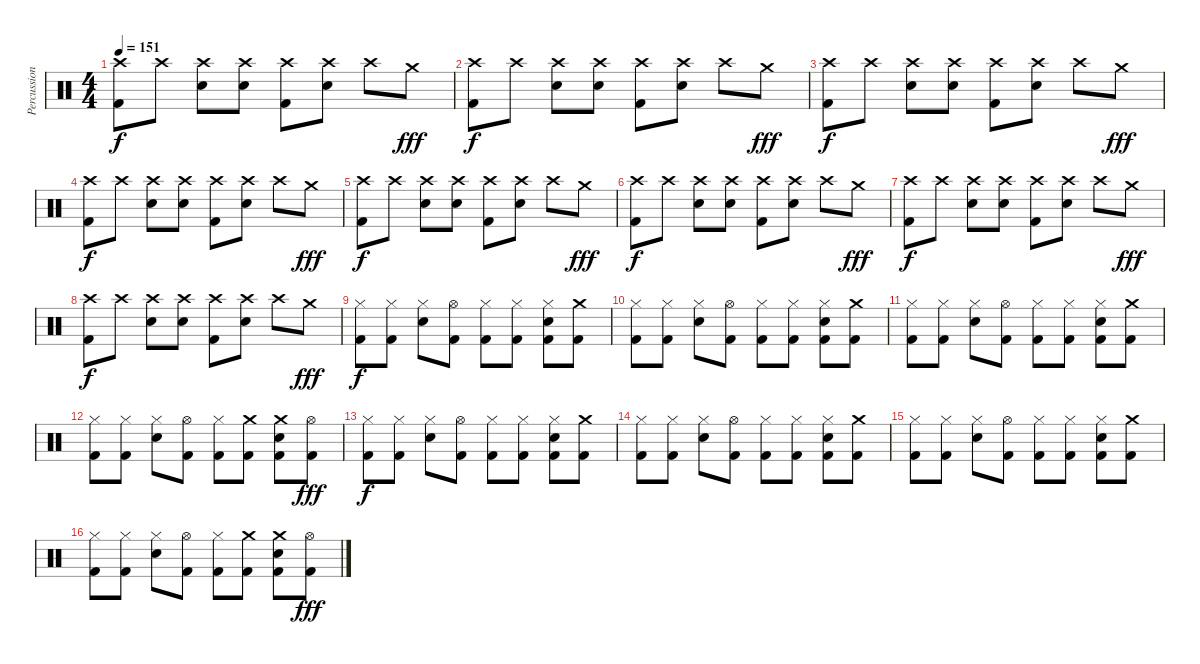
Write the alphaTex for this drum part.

\track ("Percussion" "Percussion") {instrument percussion bank 1}
\staff {score}
\articulation defaults
\ts (4 4)
\tempo 151
\clef neutral
\ks c
("Crash high (hit)" "Kick (hit) 2").8{dy f} "Crash high (hit)".8 ("Snare (hit) 2" "Crash high (hit)").8 ("Snare (hit) 2" "Crash high (hit)").8 ("Crash high (hit)" "Kick (hit) 2").8 ("Snare (hit) 2" "Crash high (hit)").8 "Crash high (hit)".8 "Crash medium (hit)".8{dy fff} |
("Crash high (hit)" "Kick (hit) 2").8{dy f} "Crash high (hit)".8 ("Snare (hit) 2" "Crash high (hit)").8 ("Snare (hit) 2" "Crash high (hit)").8 ("Crash high (hit)" "Kick (hit) 2").8 ("Snare (hit) 2" "Crash high (hit)").8 "Crash high (hit)".8 "Crash medium (hit)".8{dy fff} |
("Crash high (hit)" "Kick (hit) 2").8{dy f} "Crash high (hit)".8 ("Snare (hit) 2" "Crash high (hit)").8 ("Snare (hit) 2" "Crash high (hit)").8 ("Crash high (hit)" "Kick (hit) 2").8 ("Snare (hit) 2" "Crash high (hit)").8 "Crash high (hit)".8 "Crash medium (hit)".8{dy fff} |
("Crash high (hit)" "Kick (hit) 2").8{dy f} "Crash high (hit)".8 ("Snare (hit) 2" "Crash high (hit)").8 ("Snare (hit) 2" "Crash high (hit)").8 ("Crash high (hit)" "Kick (hit) 2").8 ("Snare (hit) 2" "Crash high (hit)").8 "Crash high (hit)".8 "Crash medium (hit)".8{dy fff} |
("Crash high (hit)" "Kick (hit) 2").8{dy f} "Crash high (hit)".8 ("Snare (hit) 2" "Crash high (hit)").8 ("Snare (hit) 2" "Crash high (hit)").8 ("Crash high (hit)" "Kick (hit) 2").8 ("Snare (hit) 2" "Crash high (hit)").8 "Crash high (hit)".8 "Crash medium (hit)".8{dy fff} |
("Crash high (hit)" "Kick (hit) 2").8{dy f} "Crash high (hit)".8 ("Snare (hit) 2" "Crash high (hit)").8 ("Snare (hit) 2" "Crash high (hit)").8 ("Crash high (hit)" "Kick (hit) 2").8 ("Snare (hit) 2" "Crash high (hit)").8 "Crash high (hit)".8 "Crash medium (hit)".8{dy fff} |
("Crash high (hit)" "Kick (hit) 2").8{dy f} "Crash high (hit)".8 ("Snare (hit) 2" "Crash high (hit)").8 ("Snare (hit) 2" "Crash high (hit)").8 ("Crash high (hit)" "Kick (hit) 2").8 ("Snare (hit) 2" "Crash high (hit)").8 "Crash high (hit)".8 "Crash medium (hit)".8{dy fff} |
("Crash high (hit)" "Kick (hit) 2").8{dy f} "Crash high (hit)".8 ("Snare (hit) 2" "Crash high (hit)").8 ("Snare (hit) 2" "Crash high (hit)").8 ("Crash high (hit)" "Kick (hit) 2").8 ("Snare (hit) 2" "Crash high (hit)").8 "Crash high (hit)".8 "Crash medium (hit)".8{dy fff} |
("Hi-Hat (closed)" "Kick (hit) 2").8{dy f} ("Hi-Hat (closed)" "Kick (hit) 2").8 ("Snare (hit) 2" "Hi-Hat (closed)").8 ("Hi-Hat (open)" "Kick (hit) 2").8 ("Hi-Hat (closed)" "Kick (hit) 2").8 ("Hi-Hat (closed)" "Kick (hit) 2").8 ("Snare (hit) 2" "Hi-Hat (closed)" "Kick (hit) 2").8 ("Crash medium (hit)" "Kick (hit) 2").8 |
("Hi-Hat (closed)" "Kick (hit) 2").8 ("Hi-Hat (closed)" "Kick (hit) 2").8 ("Snare (hit) 2" "Hi-Hat (closed)").8 ("Hi-Hat (open)" "Kick (hit) 2").8 ("Hi-Hat (closed)" "Kick (hit) 2").8 ("Hi-Hat (closed)" "Kick (hit) 2").8 ("Snare (hit) 2" "Hi-Hat (closed)" "Kick (hit) 2").8 ("Crash medium (hit)" "Kick (hit) 2").8 |
("Hi-Hat (closed)" "Kick (hit) 2").8 ("Hi-Hat (closed)" "Kick (hit) 2").8 ("Snare (hit) 2" "Hi-Hat (closed)").8 ("Hi-Hat (open)" "Kick (hit) 2").8 ("Hi-Hat (closed)" "Kick (hit) 2").8 ("Hi-Hat (closed)" "Kick (hit) 2").8 ("Snare (hit) 2" "Hi-Hat (closed)" "Kick (hit) 2").8 ("Crash medium (hit)" "Kick (hit) 2").8 |
("Hi-Hat (closed)" "Kick (hit) 2").8 ("Hi-Hat (closed)" "Kick (hit) 2").8 ("Snare (hit) 2" "Hi-Hat (closed)").8 ("Hi-Hat (open)" "Kick (hit) 2").8 ("Hi-Hat (closed)" "Kick (hit) 2").8 ("Crash medium (hit)" "Kick (hit) 2").8 ("Snare (hit) 2" "Crash medium (hit)" "Kick (hit) 2").8 ("Hi-Hat (open)" "Kick (hit) 2").8{dy fff} |
("Hi-Hat (closed)" "Kick (hit) 2").8{dy f} ("Hi-Hat (closed)" "Kick (hit) 2").8 ("Snare (hit) 2" "Hi-Hat (closed)").8 ("Hi-Hat (open)" "Kick (hit) 2").8 ("Hi-Hat (closed)" "Kick (hit) 2").8 ("Hi-Hat (closed)" "Kick (hit) 2").8 ("Snare (hit) 2" "Hi-Hat (closed)" "Kick (hit) 2").8 ("Crash medium (hit)" "Kick (hit) 2").8 |
("Hi-Hat (closed)" "Kick (hit) 2").8 ("Hi-Hat (closed)" "Kick (hit) 2").8 ("Snare (hit) 2" "Hi-Hat (closed)").8 ("Hi-Hat (open)" "Kick (hit) 2").8 ("Hi-Hat (closed)" "Kick (hit) 2").8 ("Hi-Hat (closed)" "Kick (hit) 2").8 ("Snare (hit) 2" "Hi-Hat (closed)" "Kick (hit) 2").8 ("Crash medium (hit)" "Kick (hit) 2").8 |
("Hi-Hat (closed)" "Kick (hit) 2").8 ("Hi-Hat (closed)" "Kick (hit) 2").8 ("Snare (hit) 2" "Hi-Hat (closed)").8 ("Hi-Hat (open)" "Kick (hit) 2").8 ("Hi-Hat (closed)" "Kick (hit) 2").8 ("Hi-Hat (closed)" "Kick (hit) 2").8 ("Snare (hit) 2" "Hi-Hat (closed)" "Kick (hit) 2").8 ("Crash medium (hit)" "Kick (hit) 2").8 |
("Hi-Hat (closed)" "Kick (hit) 2").8 ("Hi-Hat (closed)" "Kick (hit) 2").8 ("Snare (hit) 2" "Hi-Hat (closed)").8 ("Hi-Hat (open)" "Kick (hit) 2").8 ("Hi-Hat (closed)" "Kick (hit) 2").8 ("Crash medium (hit)" "Kick (hit) 2").8 ("Snare (hit) 2" "Crash medium (hit)" "Kick (hit) 2").8 ("Hi-Hat (open)" "Kick (hit) 2").8{dy fff}
